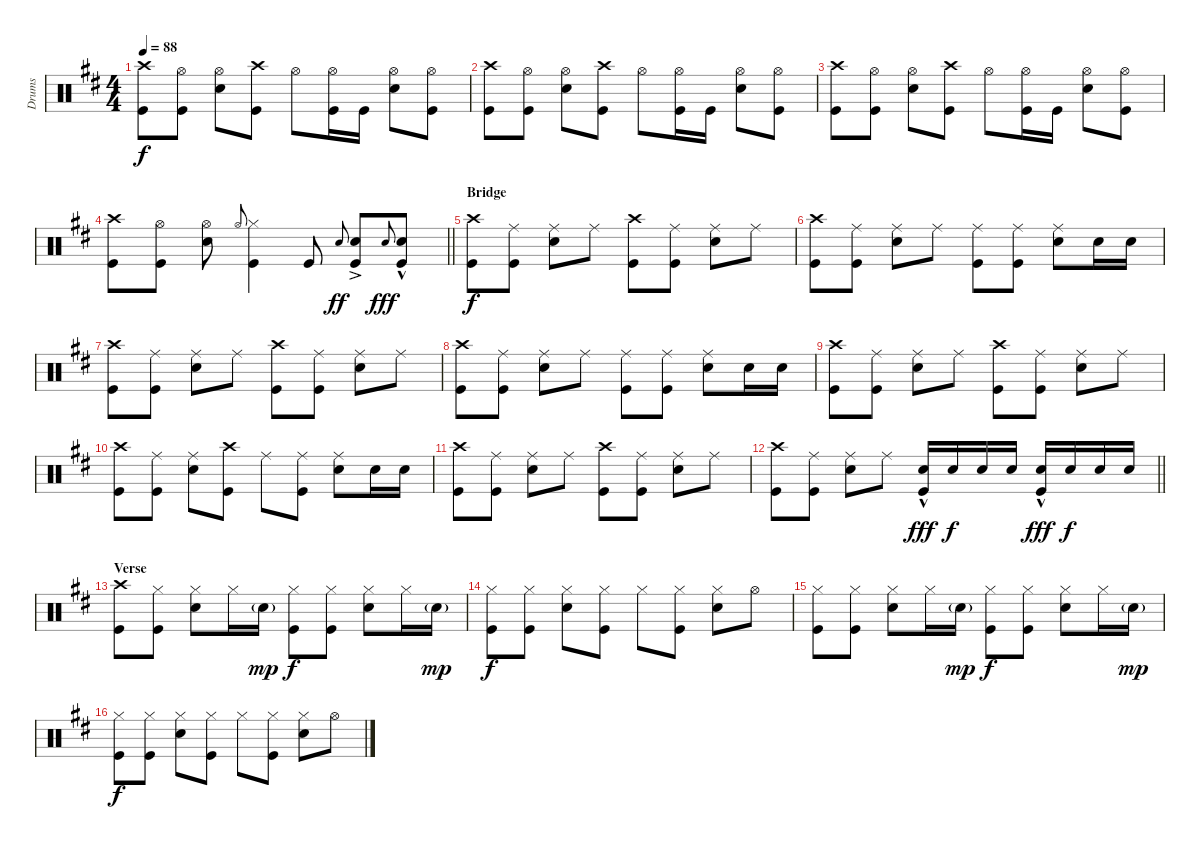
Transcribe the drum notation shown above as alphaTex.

\track ("Drums" "Drums") {instrument percussion}
\staff {score}
\articulation defaults
\ts (4 4)
\tempo 88
\clef neutral
\ks bminor
("Crash high (hit)" "Kick (hit)").8{dy f} ("Hi-Hat (open)" "Kick (hit)").8 ("Hi-Hat (open)" "Snare (hit) 2").8 ("Crash high (hit)" "Kick (hit)").8 "Hi-Hat (open)".8 ("Kick (hit)" "Hi-Hat (open)").16 "Kick (hit)".16 ("Snare (hit) 2" "Hi-Hat (open)").8 ("Kick (hit)" "Hi-Hat (open)").8 |
("Crash high (hit)" "Kick (hit)").8 ("Hi-Hat (open)" "Kick (hit)").8 ("Hi-Hat (open)" "Snare (hit) 2").8 ("Crash high (hit)" "Kick (hit)").8 "Hi-Hat (open)".8 ("Kick (hit)" "Hi-Hat (open)").16 "Kick (hit)".16 ("Snare (hit) 2" "Hi-Hat (open)").8 ("Kick (hit)" "Hi-Hat (open)").8 |
("Crash high (hit)" "Kick (hit)").8 ("Hi-Hat (open)" "Kick (hit)").8 ("Hi-Hat (open)" "Snare (hit) 2").8 ("Crash high (hit)" "Kick (hit)").8 "Hi-Hat (open)".8 ("Kick (hit)" "Hi-Hat (open)").16 "Kick (hit)".16 ("Snare (hit) 2" "Hi-Hat (open)").8 ("Kick (hit)" "Hi-Hat (open)").8 |
\barLineRight lightlight
("Crash high (hit)" "Kick (hit)").8 ("Hi-Hat (open)" "Kick (hit)").8 ("Hi-Hat (open)" "Snare (hit) 2").8 "Hi-Hat (open)".8{gr onbeat} ("Hi-Hat (closed)" "Kick (hit)").4 "Kick (hit)".8 "Snare (hit) 2".8{gr onbeat dy ff} ("Snare (hit) 2"{ac} "Kick (hit)"{ac}).8 "Snare (hit) 2".8{gr onbeat dy fff} ("Snare (hit) 2"{hac} "Kick (hit)"{hac}).8 |
\section ("" "Bridge")
("Crash high (hit)" "Kick (hit)").8{dy f} ("Ride (middle)" "Kick (hit)").8 ("Ride (middle)" "Snare (hit) 2").8 "Ride (middle)".8 ("Crash high (hit)" "Kick (hit)").8 ("Ride (middle)" "Kick (hit)").8 ("Ride (middle)" "Snare (hit) 2").8 "Ride (middle)".8 |
("Crash high (hit)" "Kick (hit)").8 ("Ride (middle)" "Kick (hit)").8 ("Ride (middle)" "Snare (hit) 2").8 "Ride (middle)".8 ("Ride (middle)" "Kick (hit)").8 ("Ride (middle)" "Kick (hit)").8 ("Ride (middle)" "Snare (hit) 2").8 "Snare (hit) 2".16 "Snare (hit) 2".16 |
("Crash high (hit)" "Kick (hit)").8 ("Ride (middle)" "Kick (hit)").8 ("Ride (middle)" "Snare (hit) 2").8 "Ride (middle)".8 ("Crash high (hit)" "Kick (hit)").8 ("Ride (middle)" "Kick (hit)").8 ("Ride (middle)" "Snare (hit) 2").8 "Ride (middle)".8 |
("Crash high (hit)" "Kick (hit)").8 ("Ride (middle)" "Kick (hit)").8 ("Ride (middle)" "Snare (hit) 2").8 "Ride (middle)".8 ("Ride (middle)" "Kick (hit)").8 ("Ride (middle)" "Kick (hit)").8 ("Ride (middle)" "Snare (hit) 2").8 "Snare (hit) 2".16 "Snare (hit) 2".16 |
("Crash high (hit)" "Kick (hit)").8 ("Ride (middle)" "Kick (hit)").8 ("Ride (middle)" "Snare (hit) 2").8 "Ride (middle)".8 ("Crash high (hit)" "Kick (hit)").8 ("Ride (middle)" "Kick (hit)").8 ("Ride (middle)" "Snare (hit) 2").8 "Ride (middle)".8 |
("Crash high (hit)" "Kick (hit)").8 ("Ride (middle)" "Kick (hit)").8 ("Ride (middle)" "Snare (hit) 2").8 ("Crash high (hit)" "Kick (hit)").8 "Ride (middle)".8 ("Ride (middle)" "Kick (hit)").8 ("Ride (middle)" "Snare (hit) 2").8 "Snare (hit) 2".16 "Snare (hit) 2".16 |
("Crash high (hit)" "Kick (hit)").8 ("Ride (middle)" "Kick (hit)").8 ("Ride (middle)" "Snare (hit) 2").8 "Ride (middle)".8 ("Crash high (hit)" "Kick (hit)").8 ("Ride (middle)" "Kick (hit)").8 ("Ride (middle)" "Snare (hit) 2").8 "Ride (middle)".8 |
\barLineRight lightlight
("Crash high (hit)" "Kick (hit)").8 ("Ride (middle)" "Kick (hit)").8 ("Ride (middle)" "Snare (hit) 2").8 "Ride (middle)".8 ("Snare (hit) 2"{hac} "Kick (hit)").16{dy fff} "Snare (hit) 2".16{dy f} "Snare (hit) 2".16 "Snare (hit) 2".16 ("Snare (hit) 2"{hac} "Kick (hit)").16{dy fff} "Snare (hit) 2".16{dy f} "Snare (hit) 2".16 "Snare (hit) 2".16 |
\section ("" "Verse")
("Kick (hit)" "Crash high (hit)").8 ("Kick (hit)" "Hi-Hat (closed)").8 ("Snare (hit) 2" "Hi-Hat (closed)").8 "Hi-Hat (closed)".16 "Snare (hit) 2"{g}.16{dy mp} ("Kick (hit)" "Hi-Hat (closed)").8{dy f} ("Kick (hit)" "Hi-Hat (closed)").8 ("Snare (hit) 2" "Hi-Hat (closed)").8 "Hi-Hat (closed)".16 "Snare (hit) 2"{g}.16{dy mp} |
("Kick (hit)" "Hi-Hat (closed)").8{dy f} ("Kick (hit)" "Hi-Hat (closed)").8 ("Snare (hit) 2" "Hi-Hat (closed)").8 ("Kick (hit)" "Hi-Hat (closed)").8 "Hi-Hat (closed)".8 ("Kick (hit)" "Hi-Hat (closed)").8 ("Snare (hit) 2" "Hi-Hat (closed)").8 "Hi-Hat (open)".8 |
("Kick (hit)" "Hi-Hat (closed)").8 ("Kick (hit)" "Hi-Hat (closed)").8 ("Snare (hit) 2" "Hi-Hat (closed)").8 "Hi-Hat (closed)".16 "Snare (hit) 2"{g}.16{dy mp} ("Kick (hit)" "Hi-Hat (closed)").8{dy f} ("Kick (hit)" "Hi-Hat (closed)").8 ("Snare (hit) 2" "Hi-Hat (closed)").8 "Hi-Hat (closed)".16 "Snare (hit) 2"{g}.16{dy mp} |
("Kick (hit)" "Hi-Hat (closed)").8{dy f} ("Kick (hit)" "Hi-Hat (closed)").8 ("Snare (hit) 2" "Hi-Hat (closed)").8 ("Kick (hit)" "Hi-Hat (closed)").8 "Hi-Hat (closed)".8 ("Kick (hit)" "Hi-Hat (closed)").8 ("Snare (hit) 2" "Hi-Hat (closed)").8 "Hi-Hat (open)".8
